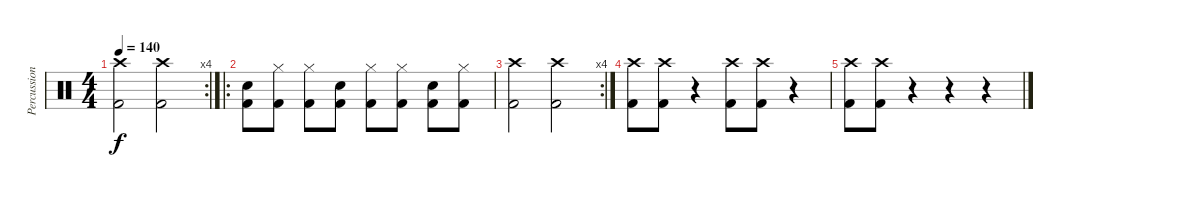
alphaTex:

\track ("Percussion" "Percussion") {instrument percussion}
\staff {score}
\articulation defaults
\rc 4
\ts (4 4)
\tempo 140
\clef neutral
\ks c
("Crash high (hit)" "Kick (hit) 2").2{dy f} ("Crash high (hit)" "Kick (hit) 2").2 |
\ro
("Electric Snare (hit)" "Kick (hit) 2").8 ("Hi-Hat (closed)" "Kick (hit) 2").8 ("Hi-Hat (closed)" "Kick (hit) 2").8 ("Electric Snare (hit)" "Kick (hit) 2").8 ("Hi-Hat (closed)" "Kick (hit) 2").8 ("Hi-Hat (closed)" "Kick (hit) 2").8 ("Electric Snare (hit)" "Kick (hit) 2").8 ("Hi-Hat (closed)" "Kick (hit) 2").8 |
\rc 4
("Crash high (hit)" "Kick (hit) 2").2 ("Crash high (hit)" "Kick (hit) 2").2 |
("Crash high (hit)" "Kick (hit) 2").8 ("Crash high (hit)" "Kick (hit) 2").8 r.4 ("Crash high (hit)" "Kick (hit) 2").8 ("Crash high (hit)" "Kick (hit) 2").8 r.4 |
("Crash high (hit)" "Kick (hit) 2").8 ("Crash high (hit)" "Kick (hit) 2").8 r.4 r.4 r.4
